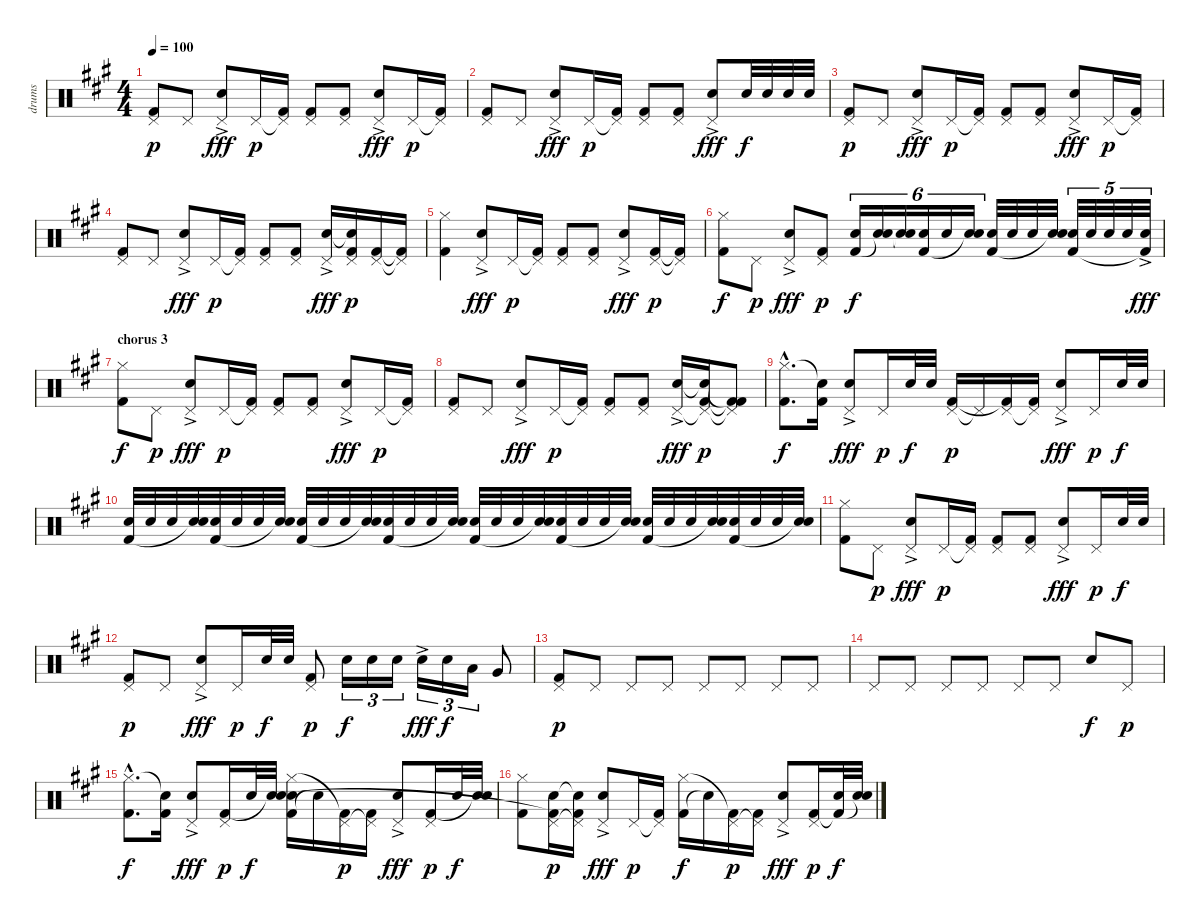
\track ("drums" "drums") {instrument percussion}
\staff {score}
\articulation defaults
\ts (4 4)
\tempo 100
\clef neutral
\ks a
("Pedal Hi-Hat (hit)" "Kick (hit) 2").8{dy p} "Pedal Hi-Hat (hit)".8 ("Pedal Hi-Hat (hit)" "Snare (hit) 2"{ac}).8{dy fff} "Pedal Hi-Hat (hit)".16{dy p} ("Pedal Hi-Hat (hit)"{t} "Kick (hit) 2").16 ("Pedal Hi-Hat (hit)" "Kick (hit) 2").8 ("Pedal Hi-Hat (hit)" "Kick (hit) 2").8 ("Pedal Hi-Hat (hit)" "Snare (hit) 2"{ac}).8{dy fff} "Pedal Hi-Hat (hit)".16{dy p} ("Pedal Hi-Hat (hit)"{t} "Kick (hit) 2").16 |
("Pedal Hi-Hat (hit)" "Kick (hit) 2").8 "Pedal Hi-Hat (hit)".8 ("Pedal Hi-Hat (hit)" "Snare (hit) 2"{ac}).8{dy fff} "Pedal Hi-Hat (hit)".16{dy p} ("Pedal Hi-Hat (hit)"{t} "Kick (hit) 2").16 ("Pedal Hi-Hat (hit)" "Kick (hit) 2").8 ("Pedal Hi-Hat (hit)" "Kick (hit) 2").8 ("Pedal Hi-Hat (hit)" "Snare (hit) 2"{ac}).8{dy fff} "Snare (hit) 2".32{dy f} "Snare (hit) 2".32 "Snare (hit) 2".32 "Snare (hit) 2".32 |
("Pedal Hi-Hat (hit)" "Kick (hit) 2").8{dy p} "Pedal Hi-Hat (hit)".8 ("Pedal Hi-Hat (hit)" "Snare (hit) 2"{ac}).8{dy fff} "Pedal Hi-Hat (hit)".16{dy p} ("Pedal Hi-Hat (hit)"{t} "Kick (hit) 2").16 ("Pedal Hi-Hat (hit)" "Kick (hit) 2").8 ("Pedal Hi-Hat (hit)" "Kick (hit) 2").8 ("Pedal Hi-Hat (hit)" "Snare (hit) 2"{ac}).8{dy fff} "Pedal Hi-Hat (hit)".16{dy p} ("Pedal Hi-Hat (hit)"{t} "Kick (hit) 2").16 |
("Pedal Hi-Hat (hit)" "Kick (hit) 2").8 "Pedal Hi-Hat (hit)".8 ("Pedal Hi-Hat (hit)" "Snare (hit) 2"{ac}).8{dy fff} "Pedal Hi-Hat (hit)".16{dy p} ("Pedal Hi-Hat (hit)"{t} "Kick (hit) 2").16 ("Pedal Hi-Hat (hit)" "Kick (hit) 2").8 ("Pedal Hi-Hat (hit)" "Kick (hit) 2").8 ("Pedal Hi-Hat (hit)" "Snare (hit) 2"{ac}).16{dy fff} ("Pedal Hi-Hat (hit)" "Snare (hit)"{t} "Kick (hit) 2").16{dy p} ("Pedal Hi-Hat (hit)" "Kick (hit) 2").16 ("Pedal Hi-Hat (hit)"{t} "Kick (hit) 2"{t}).16 |
("Hi-Hat (closed)" "Kick (hit) 2").4 ("Pedal Hi-Hat (hit)" "Snare (hit) 2"{ac}).8{dy fff} "Pedal Hi-Hat (hit)".16{dy p} ("Pedal Hi-Hat (hit)"{t} "Kick (hit) 2").16 ("Pedal Hi-Hat (hit)" "Kick (hit) 2").8 ("Pedal Hi-Hat (hit)" "Kick (hit) 2").8 ("Pedal Hi-Hat (hit)" "Snare (hit) 2"{ac}).8{dy fff} ("Pedal Hi-Hat (hit)" "Kick (hit) 2").16{dy p} ("Pedal Hi-Hat (hit)"{t} "Kick (hit) 2"{t}).16 |
("Hi-Hat (closed)" "Kick (hit) 2").8{dy f} "Pedal Hi-Hat (hit)".8{dy p} ("Pedal Hi-Hat (hit)" "Snare (hit) 2"{ac}).8{dy fff} ("Pedal Hi-Hat (hit)" "Kick (hit) 2").8{dy p} ("Snare (hit) 2" "Kick (hit) 2").16{tu (6 4) dy f} ("Snare (hit) 2" "Snare (hit)"{t}).16{tu (6 4)} ("Snare (hit) 2" "Snare (hit)"{t}).16{tu (6 4)} ("Snare (hit) 2" "Kick (hit) 2").16{tu (6 4)} "Snare (hit) 2".16{tu (6 4)} ("Snare (hit) 2" "Snare (hit)"{t}).16{tu (6 4)} ("Snare (hit) 2" "Kick (hit) 2").32 "Snare (hit) 2".32 "Snare (hit) 2".32 ("Snare (hit) 2" "Snare (hit)"{t}).32 ("Snare (hit) 2" "Kick (hit) 2").32{tu (5 4)} "Snare (hit) 2".32{tu (5 4)} "Snare (hit) 2".32{tu (5 4)} "Snare (hit) 2".32{tu (5 4)} ("Snare (hit) 2"{ac} "Kick (hit) 2"{t}).32{tu (5 4) dy fff} |
\section ("" "chorus 3")
("Hi-Hat (closed)" "Kick (hit) 2").8{dy f} "Pedal Hi-Hat (hit)".8{dy p} ("Pedal Hi-Hat (hit)" "Snare (hit) 2"{ac}).8{dy fff} "Pedal Hi-Hat (hit)".16{dy p} ("Pedal Hi-Hat (hit)"{t} "Kick (hit) 2").16 ("Pedal Hi-Hat (hit)" "Kick (hit) 2").8 ("Pedal Hi-Hat (hit)" "Kick (hit) 2").8 ("Pedal Hi-Hat (hit)" "Snare (hit) 2"{ac}).8{dy fff} "Pedal Hi-Hat (hit)".16{dy p} ("Pedal Hi-Hat (hit)"{t} "Kick (hit) 2").16 |
("Pedal Hi-Hat (hit)" "Kick (hit) 2").8 "Pedal Hi-Hat (hit)".8 ("Pedal Hi-Hat (hit)" "Snare (hit) 2"{ac}).8{dy fff} "Pedal Hi-Hat (hit)".16{dy p} ("Pedal Hi-Hat (hit)"{t} "Kick (hit) 2").16 ("Pedal Hi-Hat (hit)" "Kick (hit) 2").8 ("Pedal Hi-Hat (hit)" "Kick (hit) 2").8 ("Pedal Hi-Hat (hit)" "Snare (hit) 2"{ac}).16{dy fff} ("Pedal Hi-Hat (hit)"{t} "Snare (hit)"{t} "Kick (hit) 2").16{dy p} ("Pedal Hi-Hat (hit)"{t} "Kick (hit) 2"{t} "Kick (hit) 2"{t}).8 |
("Hi-Hat (closed)"{hac} "Kick (hit) 2"{hac}).8{d dy f} ("Snare (hit)"{t} "Kick (hit) 2").16 ("Pedal Hi-Hat (hit)" "Snare (hit) 2"{ac}).8{dy fff} "Pedal Hi-Hat (hit)".16{dy p} "Snare (hit) 2".32{dy f} "Snare (hit) 2".32 ("Pedal Hi-Hat (hit)" "Kick (hit) 2").16{dy p} "Pedal Hi-Hat (hit)"{t}.16 ("Pedal Hi-Hat (hit)" "Kick (hit) 2"{t}).16 ("Pedal Hi-Hat (hit)"{t} "Kick (hit) 2").16 ("Pedal Hi-Hat (hit)" "Snare (hit) 2"{ac}).8{dy fff} "Pedal Hi-Hat (hit)".16{dy p} "Snare (hit) 2".32{dy f} "Snare (hit) 2".32 |
("Snare (hit) 2" "Kick (hit) 2").32 "Snare (hit) 2".32 "Snare (hit) 2".32 ("Snare (hit) 2" "Snare (hit)"{t}).32 ("Snare (hit) 2" "Kick (hit) 2").32 "Snare (hit) 2".32 "Snare (hit) 2".32 ("Snare (hit) 2" "Snare (hit)"{t}).32 ("Snare (hit) 2" "Kick (hit) 2").32 "Snare (hit) 2".32 "Snare (hit) 2".32 ("Snare (hit) 2" "Snare (hit)"{t}).32 ("Snare (hit) 2" "Kick (hit) 2").32 "Snare (hit) 2".32 "Snare (hit) 2".32 ("Snare (hit) 2" "Snare (hit)"{t}).32 ("Snare (hit) 2" "Kick (hit) 2").32 "Snare (hit) 2".32 "Snare (hit) 2".32 ("Snare (hit) 2" "Snare (hit)"{t}).32 ("Snare (hit) 2" "Kick (hit) 2").32 "Snare (hit) 2".32 "Snare (hit) 2".32 ("Snare (hit) 2" "Snare (hit)"{t}).32 ("Snare (hit) 2" "Kick (hit) 2").32 "Snare (hit) 2".32 "Snare (hit) 2".32 ("Snare (hit) 2" "Snare (hit)"{t}).32 ("Snare (hit) 2" "Kick (hit) 2").32 "Snare (hit) 2".32 "Snare (hit) 2".32 ("Snare (hit) 2" "Snare (hit)"{t}).32 |
("Hi-Hat (closed)" "Kick (hit) 2").8 "Pedal Hi-Hat (hit)".8{dy p} ("Pedal Hi-Hat (hit)" "Snare (hit) 2"{ac}).8{dy fff} "Pedal Hi-Hat (hit)".16{dy p} ("Pedal Hi-Hat (hit)"{t} "Kick (hit) 2").16 ("Pedal Hi-Hat (hit)" "Kick (hit) 2").8 ("Pedal Hi-Hat (hit)" "Kick (hit) 2").8 ("Pedal Hi-Hat (hit)" "Snare (hit) 2"{ac}).8{dy fff} "Pedal Hi-Hat (hit)".16{dy p} "Snare (hit) 2".32{dy f} "Snare (hit) 2".32 |
("Pedal Hi-Hat (hit)" "Kick (hit) 2").8{dy p} "Pedal Hi-Hat (hit)".8 ("Pedal Hi-Hat (hit)" "Snare (hit) 2"{ac}).8{dy fff} "Pedal Hi-Hat (hit)".16{dy p} "Snare (hit) 2".32{dy f} "Snare (hit) 2".32 ("Pedal Hi-Hat (hit)" "Kick (hit) 2").8{dy p} "Snare (hit) 2".16{tu (3 2) dy f} "Snare (hit) 2".16{tu (3 2)} "Snare (hit) 2".16{tu (3 2)} "Snare (hit) 2"{ac}.16{tu (3 2) dy fff} "Snare (hit) 2".16{tu (3 2) dy f} "Low Tom (hit)".16{tu (3 2)} "Very Low Tom (hit)".8 |
("Pedal Hi-Hat (hit)" "Kick (hit) 2").8{dy p} "Pedal Hi-Hat (hit)".8 "Pedal Hi-Hat (hit)".8 "Pedal Hi-Hat (hit)".8 "Pedal Hi-Hat (hit)".8 "Pedal Hi-Hat (hit)".8 "Pedal Hi-Hat (hit)".8 "Pedal Hi-Hat (hit)".8 |
"Pedal Hi-Hat (hit)".8 "Pedal Hi-Hat (hit)".8 "Pedal Hi-Hat (hit)".8 "Pedal Hi-Hat (hit)".8 "Pedal Hi-Hat (hit)".8 "Pedal Hi-Hat (hit)".8 "Snare (hit) 2".8{dy f} "Pedal Hi-Hat (hit)".8{dy p} |
("Hi-Hat (closed)"{hac} "Kick (hit) 2"{hac}).8{d dy f} ("Snare (hit)"{t} "Kick (hit) 2").16 ("Pedal Hi-Hat (hit)" "Snare (hit) 2"{ac}).8{dy fff} ("Pedal Hi-Hat (hit)" "Kick (hit) 2").16{dy p} "Snare (hit) 2".32{dy f} ("Snare (hit) 2" "Snare (hit)"{t}).32 ("Kick (hit) 2" "Hi-Hat (closed)" "Snare (hit) 2").16 "Snare (hit)"{t}.16 ("Pedal Hi-Hat (hit)" "Kick (hit) 2"{t}).16{dy p} ("Pedal Hi-Hat (hit)"{t} "Kick (hit) 2").16 ("Pedal Hi-Hat (hit)" "Snare (hit) 2"{ac}).8{dy fff} ("Pedal Hi-Hat (hit)" "Kick (hit) 2").16{dy p} "Snare (hit) 2".32{dy f} ("Snare (hit) 2" "Snare (hit)"{t}).32 |
("Hi-Hat (closed)" "Kick (hit) 2").8 ("Pedal Hi-Hat (hit)" "Snare (hit) 2" "Kick (hit) 2"{t}).16{dy p} ("Pedal Hi-Hat (hit)"{t} "Snare (hit) 2"{t} "Kick (hit) 2").16 ("Pedal Hi-Hat (hit)" "Snare (hit) 2"{ac}).8{dy fff} "Pedal Hi-Hat (hit)".16{dy p} ("Pedal Hi-Hat (hit)"{t} "Kick (hit) 2").16 ("Kick (hit) 2" "Hi-Hat (closed)").16{dy f} "Snare (hit)"{t}.16 ("Pedal Hi-Hat (hit)" "Kick (hit) 2"{t}).16{dy p} ("Pedal Hi-Hat (hit)"{t} "Kick (hit) 2").16 ("Pedal Hi-Hat (hit)" "Snare (hit) 2"{ac}).8{dy fff} ("Pedal Hi-Hat (hit)" "Kick (hit) 2").16{dy p} ("Snare (hit) 2" "Kick (hit) 2"{t}).32{dy f} ("Snare (hit) 2" "Snare (hit)"{t}).32
